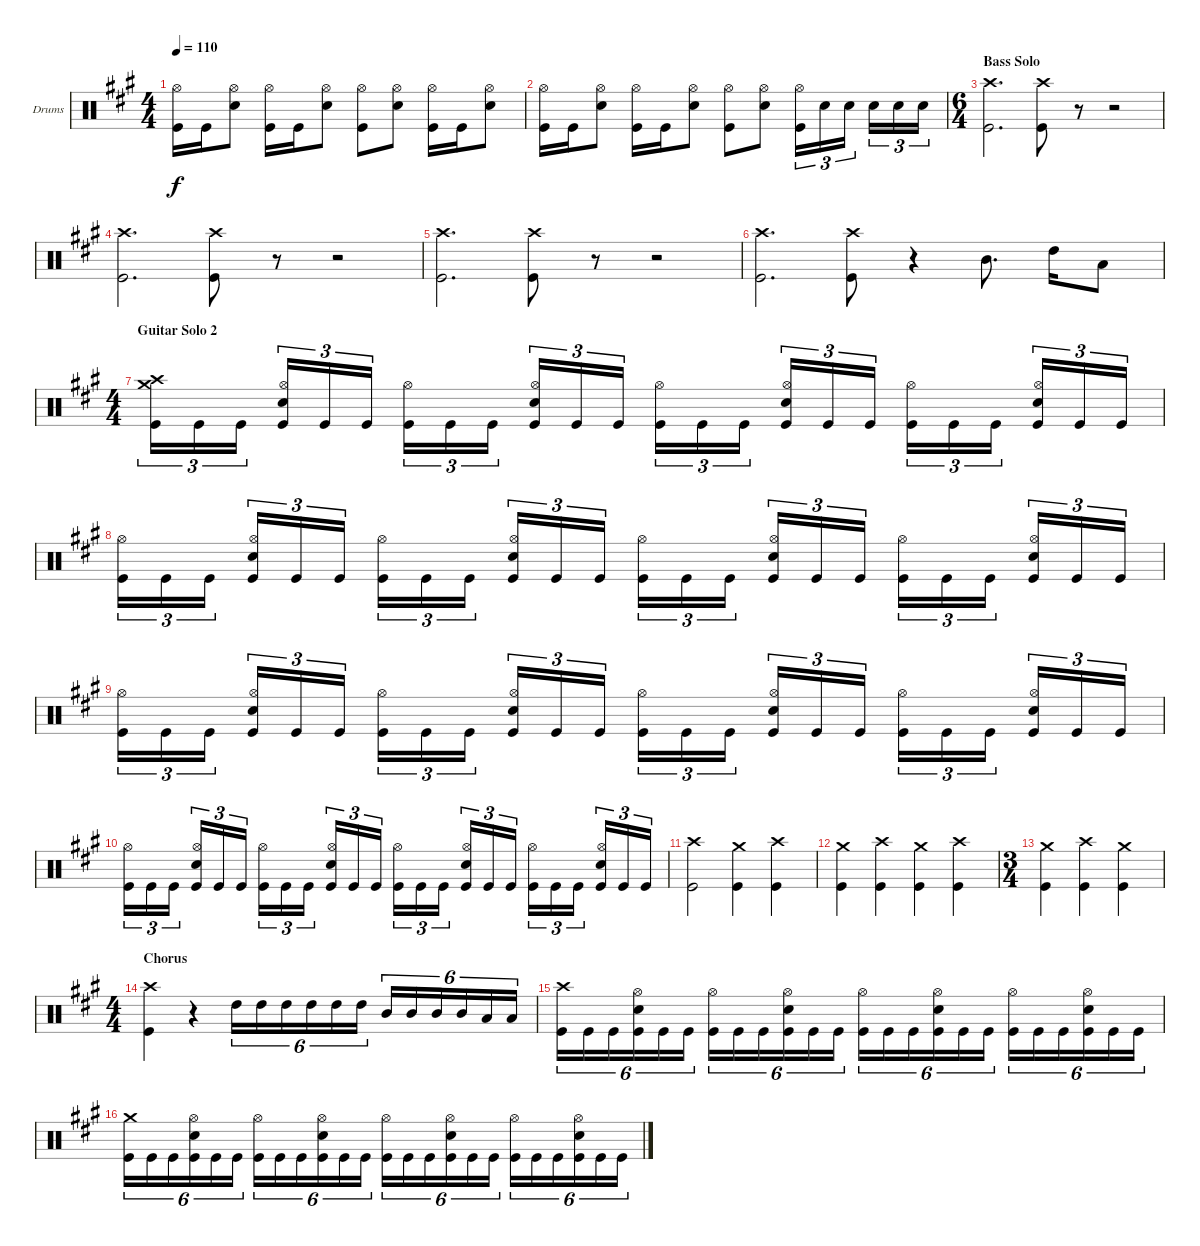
\bracketExtendMode groupsimilarinstruments
\firstSystemTrackNameOrientation horizontal
\otherSystemsTrackNameOrientation horizontal
\track ("Drumkit" "Drums") {instrument percussion}
\staff {score}
\articulation defaults
\ts (4 4)
\tempo 110
\clef neutral
\ks a
("Kick (hit)" "Hi-Hat (open)").16{dy f} "Kick (hit)".16 ("Snare (hit) 2" "Hi-Hat (open)").8 ("Kick (hit)" "Hi-Hat (open)").16 "Kick (hit)".16 ("Snare (hit) 2" "Hi-Hat (open)").8 ("Kick (hit)" "Hi-Hat (open)").8 ("Snare (hit) 2" "Hi-Hat (open)").8 ("Kick (hit)" "Hi-Hat (open)").16 "Kick (hit)".16 ("Snare (hit) 2" "Hi-Hat (open)").8 |
("Kick (hit)" "Hi-Hat (open)").16 "Kick (hit)".16 ("Snare (hit) 2" "Hi-Hat (open)").8 ("Kick (hit)" "Hi-Hat (open)").16 "Kick (hit)".16 ("Snare (hit) 2" "Hi-Hat (open)").8 ("Kick (hit)" "Hi-Hat (open)").8 ("Snare (hit) 2" "Hi-Hat (open)").8 ("Kick (hit)" "Hi-Hat (open)").16{tu (3 2)} "Snare (hit) 2".16{tu (3 2)} "Snare (hit) 2".16{tu (3 2)} "Snare (hit) 2".16{tu (3 2)} "Snare (hit) 2".16{tu (3 2)} "Snare (hit) 2".16{tu (3 2)} |
\ts (6 4)
\section ("" "Bass Solo")
("Crash high (hit)" "Kick (hit)").2{d} ("Kick (hit)" "Crash high (hit)").8 r.8 r.2 |
("Crash high (hit)" "Kick (hit)").2{d} ("Kick (hit)" "Crash high (hit)").8 r.8 r.2 |
("Crash high (hit)" "Kick (hit)").2{d} ("Kick (hit)" "Crash high (hit)").8 r.8 r.2 |
("Crash high (hit)" "Kick (hit)").2{d} ("Kick (hit)" "Crash high (hit)").8 r.4 "Mid Tom (hit)".8{d} "High Tom (hit)".16 "Low Tom (hit)".8 |
\ts (4 4)
\section ("" "Guitar Solo 2")
("Crash medium (hit)" "Crash high (hit)" "Kick (hit)").16{tu (3 2)} "Kick (hit)".16{tu (3 2)} "Kick (hit)".16{tu (3 2)} ("Snare (hit) 2" "Kick (hit)" "Hi-Hat (open)").16{tu (3 2)} "Kick (hit)".16{tu (3 2)} "Kick (hit)".16{tu (3 2)} ("Kick (hit)" "Hi-Hat (open)").16{tu (3 2)} "Kick (hit)".16{tu (3 2)} "Kick (hit)".16{tu (3 2)} ("Snare (hit) 2" "Kick (hit)" "Hi-Hat (open)").16{tu (3 2)} "Kick (hit)".16{tu (3 2)} "Kick (hit)".16{tu (3 2)} ("Kick (hit)" "Hi-Hat (open)").16{tu (3 2)} "Kick (hit)".16{tu (3 2)} "Kick (hit)".16{tu (3 2)} ("Snare (hit) 2" "Kick (hit)" "Hi-Hat (open)").16{tu (3 2)} "Kick (hit)".16{tu (3 2)} "Kick (hit)".16{tu (3 2)} ("Kick (hit)" "Hi-Hat (open)").16{tu (3 2)} "Kick (hit)".16{tu (3 2)} "Kick (hit)".16{tu (3 2)} ("Kick (hit)" "Snare (hit) 2" "Hi-Hat (open)").16{tu (3 2)} "Kick (hit)".16{tu (3 2)} "Kick (hit)".16{tu (3 2)} |
("Kick (hit)" "Hi-Hat (open)").16{tu (3 2)} "Kick (hit)".16{tu (3 2)} "Kick (hit)".16{tu (3 2)} ("Snare (hit) 2" "Kick (hit)" "Hi-Hat (open)").16{tu (3 2)} "Kick (hit)".16{tu (3 2)} "Kick (hit)".16{tu (3 2)} ("Kick (hit)" "Hi-Hat (open)").16{tu (3 2)} "Kick (hit)".16{tu (3 2)} "Kick (hit)".16{tu (3 2)} ("Snare (hit) 2" "Kick (hit)" "Hi-Hat (open)").16{tu (3 2)} "Kick (hit)".16{tu (3 2)} "Kick (hit)".16{tu (3 2)} ("Kick (hit)" "Hi-Hat (open)").16{tu (3 2)} "Kick (hit)".16{tu (3 2)} "Kick (hit)".16{tu (3 2)} ("Snare (hit) 2" "Kick (hit)" "Hi-Hat (open)").16{tu (3 2)} "Kick (hit)".16{tu (3 2)} "Kick (hit)".16{tu (3 2)} ("Kick (hit)" "Hi-Hat (open)").16{tu (3 2)} "Kick (hit)".16{tu (3 2)} "Kick (hit)".16{tu (3 2)} ("Kick (hit)" "Snare (hit) 2" "Hi-Hat (open)").16{tu (3 2)} "Kick (hit)".16{tu (3 2)} "Kick (hit)".16{tu (3 2)} |
("Kick (hit)" "Hi-Hat (open)").16{tu (3 2)} "Kick (hit)".16{tu (3 2)} "Kick (hit)".16{tu (3 2)} ("Snare (hit) 2" "Kick (hit)" "Hi-Hat (open)").16{tu (3 2)} "Kick (hit)".16{tu (3 2)} "Kick (hit)".16{tu (3 2)} ("Kick (hit)" "Hi-Hat (open)").16{tu (3 2)} "Kick (hit)".16{tu (3 2)} "Kick (hit)".16{tu (3 2)} ("Snare (hit) 2" "Kick (hit)" "Hi-Hat (open)").16{tu (3 2)} "Kick (hit)".16{tu (3 2)} "Kick (hit)".16{tu (3 2)} ("Kick (hit)" "Hi-Hat (open)").16{tu (3 2)} "Kick (hit)".16{tu (3 2)} "Kick (hit)".16{tu (3 2)} ("Snare (hit) 2" "Kick (hit)" "Hi-Hat (open)").16{tu (3 2)} "Kick (hit)".16{tu (3 2)} "Kick (hit)".16{tu (3 2)} ("Kick (hit)" "Hi-Hat (open)").16{tu (3 2)} "Kick (hit)".16{tu (3 2)} "Kick (hit)".16{tu (3 2)} ("Kick (hit)" "Snare (hit) 2" "Hi-Hat (open)").16{tu (3 2)} "Kick (hit)".16{tu (3 2)} "Kick (hit)".16{tu (3 2)} |
("Kick (hit)" "Hi-Hat (open)").16{tu (3 2)} "Kick (hit)".16{tu (3 2)} "Kick (hit)".16{tu (3 2)} ("Snare (hit) 2" "Kick (hit)" "Hi-Hat (open)").16{tu (3 2)} "Kick (hit)".16{tu (3 2)} "Kick (hit)".16{tu (3 2)} ("Kick (hit)" "Hi-Hat (open)").16{tu (3 2)} "Kick (hit)".16{tu (3 2)} "Kick (hit)".16{tu (3 2)} ("Snare (hit) 2" "Kick (hit)" "Hi-Hat (open)").16{tu (3 2)} "Kick (hit)".16{tu (3 2)} "Kick (hit)".16{tu (3 2)} ("Kick (hit)" "Hi-Hat (open)").16{tu (3 2)} "Kick (hit)".16{tu (3 2)} "Kick (hit)".16{tu (3 2)} ("Snare (hit) 2" "Kick (hit)" "Hi-Hat (open)").16{tu (3 2)} "Kick (hit)".16{tu (3 2)} "Kick (hit)".16{tu (3 2)} ("Kick (hit)" "Hi-Hat (open)").16{tu (3 2)} "Kick (hit)".16{tu (3 2)} "Kick (hit)".16{tu (3 2)} ("Kick (hit)" "Snare (hit) 2" "Hi-Hat (open)").16{tu (3 2)} "Kick (hit)".16{tu (3 2)} "Kick (hit)".16{tu (3 2)} |
("Kick (hit)" "Crash high (hit)").2 ("Kick (hit)" "Crash medium (hit)").4 ("Kick (hit)" "Crash high (hit)").4 |
("Kick (hit)" "Crash medium (hit)").4 ("Kick (hit)" "Crash high (hit)").4 ("Kick (hit)" "Crash medium (hit)").4 ("Kick (hit)" "Crash high (hit)").4 |
\ts (3 4)
("Kick (hit)" "Crash medium (hit)").4 ("Kick (hit)" "Crash high (hit)").4 ("Kick (hit)" "Crash medium (hit)").4 |
\ts (4 4)
\section ("" "Chorus")
("Kick (hit)" "Crash high (hit)").4 r.4 "High Tom (hit)".16{tu (6 4)} "High Tom (hit)".16{tu (6 4)} "High Tom (hit)".16{tu (6 4)} "High Tom (hit)".16{tu (6 4)} "High Tom (hit)".16{tu (6 4)} "High Tom (hit)".16{tu (6 4)} "Mid Tom (hit)".16{tu (6 4)} "Mid Tom (hit)".16{tu (6 4)} "Mid Tom (hit)".16{tu (6 4)} "Mid Tom (hit)".16{tu (6 4)} "Low Tom (hit)".16{tu (6 4)} "Low Tom (hit)".16{tu (6 4)} |
("Crash high (hit)" "Kick (hit)").16{tu (6 4)} "Kick (hit)".16{tu (6 4)} "Kick (hit)".16{tu (6 4)} ("Snare (hit) 2" "Kick (hit)" "Hi-Hat (open)").16{tu (6 4)} "Kick (hit)".16{tu (6 4)} "Kick (hit)".16{tu (6 4)} ("Kick (hit)" "Hi-Hat (open)").16{tu (6 4)} "Kick (hit)".16{tu (6 4)} "Kick (hit)".16{tu (6 4)} ("Snare (hit) 2" "Kick (hit)" "Hi-Hat (open)").16{tu (6 4)} "Kick (hit)".16{tu (6 4)} "Kick (hit)".16{tu (6 4)} ("Kick (hit)" "Hi-Hat (open)").16{tu (6 4)} "Kick (hit)".16{tu (6 4)} "Kick (hit)".16{tu (6 4)} ("Snare (hit) 2" "Kick (hit)" "Hi-Hat (open)").16{tu (6 4)} "Kick (hit)".16{tu (6 4)} "Kick (hit)".16{tu (6 4)} ("Kick (hit)" "Hi-Hat (open)").16{tu (6 4)} "Kick (hit)".16{tu (6 4)} "Kick (hit)".16{tu (6 4)} ("Snare (hit) 2" "Kick (hit)" "Hi-Hat (open)").16{tu (6 4)} "Kick (hit)".16{tu (6 4)} "Kick (hit)".16{tu (6 4)} |
("Kick (hit)" "Crash medium (hit)").16{tu (6 4)} "Kick (hit)".16{tu (6 4)} "Kick (hit)".16{tu (6 4)} ("Snare (hit) 2" "Kick (hit)" "Hi-Hat (open)").16{tu (6 4)} "Kick (hit)".16{tu (6 4)} "Kick (hit)".16{tu (6 4)} ("Kick (hit)" "Hi-Hat (open)").16{tu (6 4)} "Kick (hit)".16{tu (6 4)} "Kick (hit)".16{tu (6 4)} ("Snare (hit) 2" "Kick (hit)" "Hi-Hat (open)").16{tu (6 4)} "Kick (hit)".16{tu (6 4)} "Kick (hit)".16{tu (6 4)} ("Kick (hit)" "Hi-Hat (open)").16{tu (6 4)} "Kick (hit)".16{tu (6 4)} "Kick (hit)".16{tu (6 4)} ("Snare (hit) 2" "Kick (hit)" "Hi-Hat (open)").16{tu (6 4)} "Kick (hit)".16{tu (6 4)} "Kick (hit)".16{tu (6 4)} ("Kick (hit)" "Hi-Hat (open)").16{tu (6 4)} "Kick (hit)".16{tu (6 4)} "Kick (hit)".16{tu (6 4)} ("Snare (hit) 2" "Kick (hit)" "Hi-Hat (open)").16{tu (6 4)} "Kick (hit)".16{tu (6 4)} "Kick (hit)".16{tu (6 4)}
